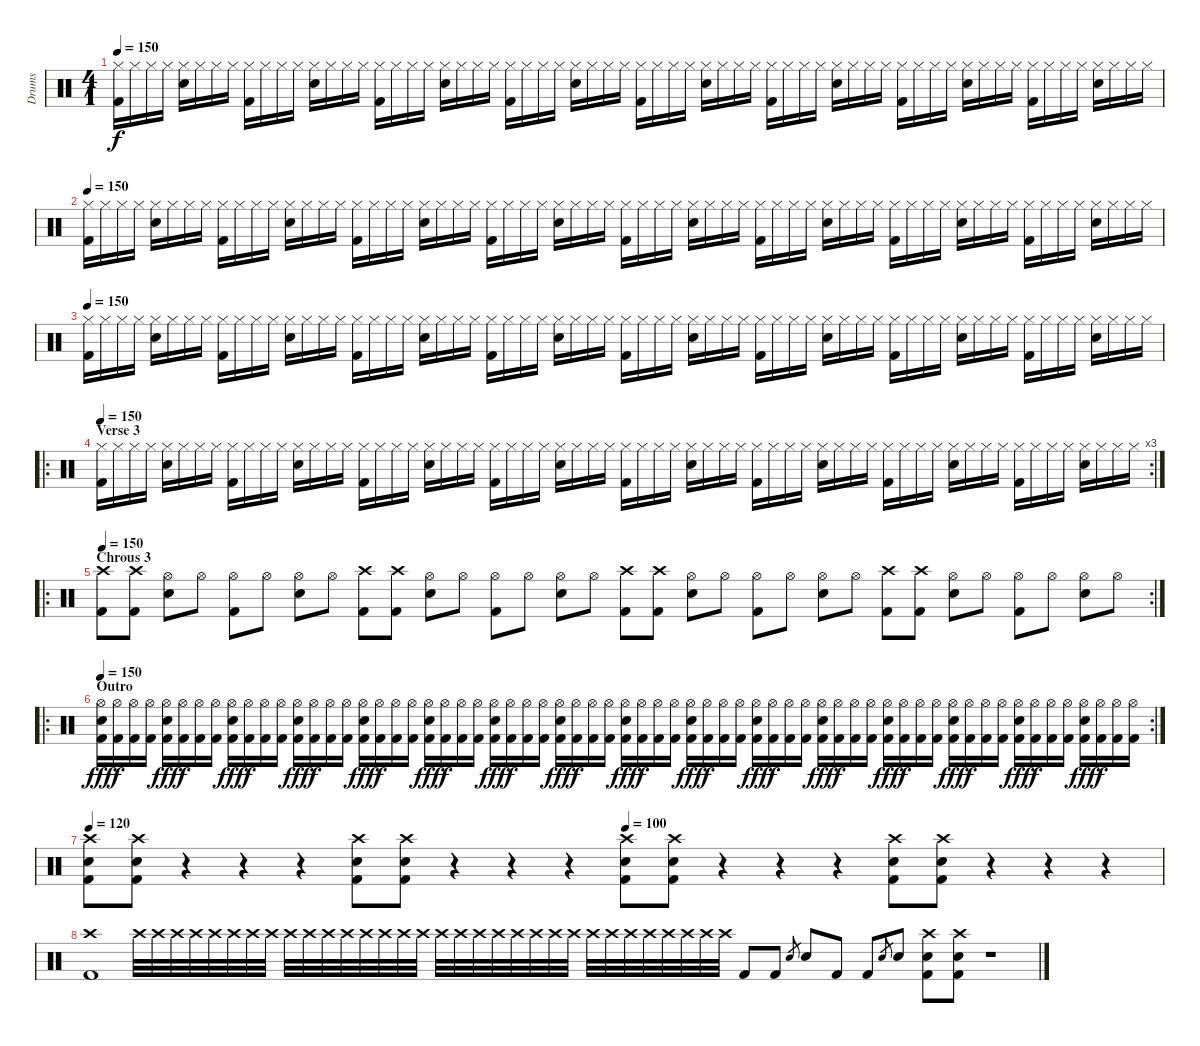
\track ("Drums" "Drums") {instrument percussion}
\staff {score}
\articulation defaults
\ts (4 1)
\tempo 150
\clef neutral
\ks c
("Hi-Hat (closed)" "Kick (hit) 2").16{dy f} "Hi-Hat (closed)".16 "Hi-Hat (closed)".16 "Hi-Hat (closed)".16 ("Hi-Hat (closed)" "Electric Snare (hit)").16 "Hi-Hat (closed)".16 "Hi-Hat (closed)".16 "Hi-Hat (closed)".16 ("Hi-Hat (closed)" "Kick (hit) 2").16 "Hi-Hat (closed)".16 "Hi-Hat (closed)".16 "Hi-Hat (closed)".16 ("Hi-Hat (closed)" "Electric Snare (hit)").16 "Hi-Hat (closed)".16 "Hi-Hat (closed)".16 "Hi-Hat (closed)".16 ("Hi-Hat (closed)" "Kick (hit) 2").16 "Hi-Hat (closed)".16 "Hi-Hat (closed)".16 "Hi-Hat (closed)".16 ("Hi-Hat (closed)" "Electric Snare (hit)").16 "Hi-Hat (closed)".16 "Hi-Hat (closed)".16 "Hi-Hat (closed)".16 ("Hi-Hat (closed)" "Kick (hit) 2").16 "Hi-Hat (closed)".16 "Hi-Hat (closed)".16 "Hi-Hat (closed)".16 ("Hi-Hat (closed)" "Electric Snare (hit)").16 "Hi-Hat (closed)".16 "Hi-Hat (closed)".16 "Hi-Hat (closed)".16 ("Hi-Hat (closed)" "Kick (hit) 2").16 "Hi-Hat (closed)".16 "Hi-Hat (closed)".16 "Hi-Hat (closed)".16 ("Hi-Hat (closed)" "Electric Snare (hit)").16 "Hi-Hat (closed)".16 "Hi-Hat (closed)".16 "Hi-Hat (closed)".16 ("Hi-Hat (closed)" "Kick (hit) 2").16 "Hi-Hat (closed)".16 "Hi-Hat (closed)".16 "Hi-Hat (closed)".16 ("Hi-Hat (closed)" "Electric Snare (hit)").16 "Hi-Hat (closed)".16 "Hi-Hat (closed)".16 "Hi-Hat (closed)".16 ("Hi-Hat (closed)" "Kick (hit) 2").16 "Hi-Hat (closed)".16 "Hi-Hat (closed)".16 "Hi-Hat (closed)".16 ("Hi-Hat (closed)" "Electric Snare (hit)").16 "Hi-Hat (closed)".16 "Hi-Hat (closed)".16 "Hi-Hat (closed)".16 ("Hi-Hat (closed)" "Kick (hit) 2").16 "Hi-Hat (closed)".16 "Hi-Hat (closed)".16 "Hi-Hat (closed)".16 ("Hi-Hat (closed)" "Electric Snare (hit)").16 "Hi-Hat (closed)".16 "Hi-Hat (closed)".16 "Hi-Hat (closed)".16 |
\tempo 150
("Hi-Hat (closed)" "Kick (hit) 2").16 "Hi-Hat (closed)".16 "Hi-Hat (closed)".16 "Hi-Hat (closed)".16 ("Hi-Hat (closed)" "Electric Snare (hit)").16 "Hi-Hat (closed)".16 "Hi-Hat (closed)".16 "Hi-Hat (closed)".16 ("Hi-Hat (closed)" "Kick (hit) 2").16 "Hi-Hat (closed)".16 "Hi-Hat (closed)".16 "Hi-Hat (closed)".16 ("Hi-Hat (closed)" "Electric Snare (hit)").16 "Hi-Hat (closed)".16 "Hi-Hat (closed)".16 "Hi-Hat (closed)".16 ("Hi-Hat (closed)" "Kick (hit) 2").16 "Hi-Hat (closed)".16 "Hi-Hat (closed)".16 "Hi-Hat (closed)".16 ("Hi-Hat (closed)" "Electric Snare (hit)").16 "Hi-Hat (closed)".16 "Hi-Hat (closed)".16 "Hi-Hat (closed)".16 ("Hi-Hat (closed)" "Kick (hit) 2").16 "Hi-Hat (closed)".16 "Hi-Hat (closed)".16 "Hi-Hat (closed)".16 ("Hi-Hat (closed)" "Electric Snare (hit)").16 "Hi-Hat (closed)".16 "Hi-Hat (closed)".16 "Hi-Hat (closed)".16 ("Hi-Hat (closed)" "Kick (hit) 2").16 "Hi-Hat (closed)".16 "Hi-Hat (closed)".16 "Hi-Hat (closed)".16 ("Hi-Hat (closed)" "Electric Snare (hit)").16 "Hi-Hat (closed)".16 "Hi-Hat (closed)".16 "Hi-Hat (closed)".16 ("Hi-Hat (closed)" "Kick (hit) 2").16 "Hi-Hat (closed)".16 "Hi-Hat (closed)".16 "Hi-Hat (closed)".16 ("Hi-Hat (closed)" "Electric Snare (hit)").16 "Hi-Hat (closed)".16 "Hi-Hat (closed)".16 "Hi-Hat (closed)".16 ("Hi-Hat (closed)" "Kick (hit) 2").16 "Hi-Hat (closed)".16 "Hi-Hat (closed)".16 "Hi-Hat (closed)".16 ("Hi-Hat (closed)" "Electric Snare (hit)").16 "Hi-Hat (closed)".16 "Hi-Hat (closed)".16 "Hi-Hat (closed)".16 ("Hi-Hat (closed)" "Kick (hit) 2").16 "Hi-Hat (closed)".16 "Hi-Hat (closed)".16 "Hi-Hat (closed)".16 ("Hi-Hat (closed)" "Electric Snare (hit)").16 "Hi-Hat (closed)".16 "Hi-Hat (closed)".16 "Hi-Hat (closed)".16 |
\tempo 150
("Hi-Hat (closed)" "Kick (hit) 2").16 "Hi-Hat (closed)".16 "Hi-Hat (closed)".16 "Hi-Hat (closed)".16 ("Hi-Hat (closed)" "Electric Snare (hit)").16 "Hi-Hat (closed)".16 "Hi-Hat (closed)".16 "Hi-Hat (closed)".16 ("Hi-Hat (closed)" "Kick (hit) 2").16 "Hi-Hat (closed)".16 "Hi-Hat (closed)".16 "Hi-Hat (closed)".16 ("Hi-Hat (closed)" "Electric Snare (hit)").16 "Hi-Hat (closed)".16 "Hi-Hat (closed)".16 "Hi-Hat (closed)".16 ("Hi-Hat (closed)" "Kick (hit) 2").16 "Hi-Hat (closed)".16 "Hi-Hat (closed)".16 "Hi-Hat (closed)".16 ("Hi-Hat (closed)" "Electric Snare (hit)").16 "Hi-Hat (closed)".16 "Hi-Hat (closed)".16 "Hi-Hat (closed)".16 ("Hi-Hat (closed)" "Kick (hit) 2").16 "Hi-Hat (closed)".16 "Hi-Hat (closed)".16 "Hi-Hat (closed)".16 ("Hi-Hat (closed)" "Electric Snare (hit)").16 "Hi-Hat (closed)".16 "Hi-Hat (closed)".16 "Hi-Hat (closed)".16 ("Hi-Hat (closed)" "Kick (hit) 2").16 "Hi-Hat (closed)".16 "Hi-Hat (closed)".16 "Hi-Hat (closed)".16 ("Hi-Hat (closed)" "Electric Snare (hit)").16 "Hi-Hat (closed)".16 "Hi-Hat (closed)".16 "Hi-Hat (closed)".16 ("Hi-Hat (closed)" "Kick (hit) 2").16 "Hi-Hat (closed)".16 "Hi-Hat (closed)".16 "Hi-Hat (closed)".16 ("Hi-Hat (closed)" "Electric Snare (hit)").16 "Hi-Hat (closed)".16 "Hi-Hat (closed)".16 "Hi-Hat (closed)".16 ("Hi-Hat (closed)" "Kick (hit) 2").16 "Hi-Hat (closed)".16 "Hi-Hat (closed)".16 "Hi-Hat (closed)".16 ("Hi-Hat (closed)" "Electric Snare (hit)").16 "Hi-Hat (closed)".16 "Hi-Hat (closed)".16 "Hi-Hat (closed)".16 ("Hi-Hat (closed)" "Kick (hit) 2").16 "Hi-Hat (closed)".16 "Hi-Hat (closed)".16 "Hi-Hat (closed)".16 ("Hi-Hat (closed)" "Electric Snare (hit)").16 "Hi-Hat (closed)".16 "Hi-Hat (closed)".16 "Hi-Hat (closed)".16 |
\ro
\rc 3
\section ("" "Verse 3")
\tempo 150
("Hi-Hat (closed)" "Kick (hit) 2").16 "Hi-Hat (closed)".16 "Hi-Hat (closed)".16 "Hi-Hat (closed)".16 ("Hi-Hat (closed)" "Electric Snare (hit)").16 "Hi-Hat (closed)".16 "Hi-Hat (closed)".16 "Hi-Hat (closed)".16 ("Hi-Hat (closed)" "Kick (hit) 2").16 "Hi-Hat (closed)".16 "Hi-Hat (closed)".16 "Hi-Hat (closed)".16 ("Hi-Hat (closed)" "Electric Snare (hit)").16 "Hi-Hat (closed)".16 "Hi-Hat (closed)".16 "Hi-Hat (closed)".16 ("Hi-Hat (closed)" "Kick (hit) 2").16 "Hi-Hat (closed)".16 "Hi-Hat (closed)".16 "Hi-Hat (closed)".16 ("Hi-Hat (closed)" "Electric Snare (hit)").16 "Hi-Hat (closed)".16 "Hi-Hat (closed)".16 "Hi-Hat (closed)".16 ("Hi-Hat (closed)" "Kick (hit) 2").16 "Hi-Hat (closed)".16 "Hi-Hat (closed)".16 "Hi-Hat (closed)".16 ("Hi-Hat (closed)" "Electric Snare (hit)").16 "Hi-Hat (closed)".16 "Hi-Hat (closed)".16 "Hi-Hat (closed)".16 ("Hi-Hat (closed)" "Kick (hit) 2").16 "Hi-Hat (closed)".16 "Hi-Hat (closed)".16 "Hi-Hat (closed)".16 ("Hi-Hat (closed)" "Electric Snare (hit)").16 "Hi-Hat (closed)".16 "Hi-Hat (closed)".16 "Hi-Hat (closed)".16 ("Hi-Hat (closed)" "Kick (hit) 2").16 "Hi-Hat (closed)".16 "Hi-Hat (closed)".16 "Hi-Hat (closed)".16 ("Hi-Hat (closed)" "Electric Snare (hit)").16 "Hi-Hat (closed)".16 "Hi-Hat (closed)".16 "Hi-Hat (closed)".16 ("Hi-Hat (closed)" "Kick (hit) 2").16 "Hi-Hat (closed)".16 "Hi-Hat (closed)".16 "Hi-Hat (closed)".16 ("Hi-Hat (closed)" "Electric Snare (hit)").16 "Hi-Hat (closed)".16 "Hi-Hat (closed)".16 "Hi-Hat (closed)".16 ("Hi-Hat (closed)" "Kick (hit) 2").16 "Hi-Hat (closed)".16 "Hi-Hat (closed)".16 "Hi-Hat (closed)".16 ("Hi-Hat (closed)" "Electric Snare (hit)").16 "Hi-Hat (closed)".16 "Hi-Hat (closed)".16 "Hi-Hat (closed)".16 |
\ro
\rc 2
\section ("" "Chrous 3")
\tempo 150
("Crash high (hit)" "Kick (hit) 2").8 ("Crash high (hit)" "Kick (hit) 2").8 ("Hi-Hat (open)" "Electric Snare (hit)").8 "Hi-Hat (open)".8 ("Hi-Hat (open)" "Kick (hit) 2").8 "Hi-Hat (open)".8 ("Hi-Hat (open)" "Electric Snare (hit)").8 "Hi-Hat (open)".8 ("Crash high (hit)" "Kick (hit) 2").8 ("Crash high (hit)" "Kick (hit) 2").8 ("Hi-Hat (open)" "Electric Snare (hit)").8 "Hi-Hat (open)".8 ("Hi-Hat (open)" "Kick (hit) 2").8 "Hi-Hat (open)".8 ("Hi-Hat (open)" "Electric Snare (hit)").8 "Hi-Hat (open)".8 ("Crash high (hit)" "Kick (hit) 2").8 ("Crash high (hit)" "Kick (hit) 2").8 ("Hi-Hat (open)" "Electric Snare (hit)").8 "Hi-Hat (open)".8 ("Hi-Hat (open)" "Kick (hit) 2").8 "Hi-Hat (open)".8 ("Hi-Hat (open)" "Electric Snare (hit)").8 "Hi-Hat (open)".8 ("Crash high (hit)" "Kick (hit) 2").8 ("Crash high (hit)" "Kick (hit) 2").8 ("Hi-Hat (open)" "Electric Snare (hit)").8 "Hi-Hat (open)".8 ("Hi-Hat (open)" "Kick (hit) 2").8 "Hi-Hat (open)".8 ("Hi-Hat (open)" "Electric Snare (hit)").8 "Hi-Hat (open)".8 |
\ro
\rc 2
\section ("" "Outro")
\tempo 150
("Hi-Hat (open)" "Kick (hit) 2" "Electric Snare (hit)").16{dy fff} ("Hi-Hat (open)" "Kick (hit) 2").16{dy f} ("Hi-Hat (open)" "Kick (hit) 2").16 ("Hi-Hat (open)" "Kick (hit) 2").16 ("Hi-Hat (open)" "Kick (hit) 2" "Electric Snare (hit)").16{dy fff} ("Hi-Hat (open)" "Kick (hit) 2").16{dy f} ("Hi-Hat (open)" "Kick (hit) 2").16 ("Hi-Hat (open)" "Kick (hit) 2").16 ("Hi-Hat (open)" "Kick (hit) 2" "Electric Snare (hit)").16{dy fff} ("Hi-Hat (open)" "Kick (hit) 2").16{dy f} ("Hi-Hat (open)" "Kick (hit) 2").16 ("Hi-Hat (open)" "Kick (hit) 2").16 ("Hi-Hat (open)" "Kick (hit) 2" "Electric Snare (hit)").16{dy fff} ("Hi-Hat (open)" "Kick (hit) 2").16{dy f} ("Hi-Hat (open)" "Kick (hit) 2").16 ("Hi-Hat (open)" "Kick (hit) 2").16 ("Hi-Hat (open)" "Kick (hit) 2" "Electric Snare (hit)").16{dy fff} ("Hi-Hat (open)" "Kick (hit) 2").16{dy f} ("Hi-Hat (open)" "Kick (hit) 2").16 ("Hi-Hat (open)" "Kick (hit) 2").16 ("Hi-Hat (open)" "Kick (hit) 2" "Electric Snare (hit)").16{dy fff} ("Hi-Hat (open)" "Kick (hit) 2").16{dy f} ("Hi-Hat (open)" "Kick (hit) 2").16 ("Hi-Hat (open)" "Kick (hit) 2").16 ("Hi-Hat (open)" "Kick (hit) 2" "Electric Snare (hit)").16{dy fff} ("Hi-Hat (open)" "Kick (hit) 2").16{dy f} ("Hi-Hat (open)" "Kick (hit) 2").16 ("Hi-Hat (open)" "Kick (hit) 2").16 ("Hi-Hat (open)" "Kick (hit) 2" "Electric Snare (hit)").16{dy fff} ("Hi-Hat (open)" "Kick (hit) 2").16{dy f} ("Hi-Hat (open)" "Kick (hit) 2").16 ("Hi-Hat (open)" "Kick (hit) 2").16 ("Hi-Hat (open)" "Kick (hit) 2" "Electric Snare (hit)").16{dy fff} ("Hi-Hat (open)" "Kick (hit) 2").16{dy f} ("Hi-Hat (open)" "Kick (hit) 2").16 ("Hi-Hat (open)" "Kick (hit) 2").16 ("Hi-Hat (open)" "Kick (hit) 2" "Electric Snare (hit)").16{dy fff} ("Hi-Hat (open)" "Kick (hit) 2").16{dy f} ("Hi-Hat (open)" "Kick (hit) 2").16 ("Hi-Hat (open)" "Kick (hit) 2").16 ("Hi-Hat (open)" "Kick (hit) 2" "Electric Snare (hit)").16{dy fff} ("Hi-Hat (open)" "Kick (hit) 2").16{dy f} ("Hi-Hat (open)" "Kick (hit) 2").16 ("Hi-Hat (open)" "Kick (hit) 2").16 ("Hi-Hat (open)" "Kick (hit) 2" "Electric Snare (hit)").16{dy fff} ("Hi-Hat (open)" "Kick (hit) 2").16{dy f} ("Hi-Hat (open)" "Kick (hit) 2").16 ("Hi-Hat (open)" "Kick (hit) 2").16 ("Hi-Hat (open)" "Kick (hit) 2" "Electric Snare (hit)").16{dy fff} ("Hi-Hat (open)" "Kick (hit) 2").16{dy f} ("Hi-Hat (open)" "Kick (hit) 2").16 ("Hi-Hat (open)" "Kick (hit) 2").16 ("Hi-Hat (open)" "Kick (hit) 2" "Electric Snare (hit)").16{dy fff} ("Hi-Hat (open)" "Kick (hit) 2").16{dy f} ("Hi-Hat (open)" "Kick (hit) 2").16 ("Hi-Hat (open)" "Kick (hit) 2").16 ("Hi-Hat (open)" "Kick (hit) 2" "Electric Snare (hit)").16{dy fff} ("Hi-Hat (open)" "Kick (hit) 2").16{dy f} ("Hi-Hat (open)" "Kick (hit) 2").16 ("Hi-Hat (open)" "Kick (hit) 2").16 ("Hi-Hat (open)" "Kick (hit) 2" "Electric Snare (hit)").16{dy fff} ("Hi-Hat (open)" "Kick (hit) 2").16{dy f} ("Hi-Hat (open)" "Kick (hit) 2").16 ("Hi-Hat (open)" "Kick (hit) 2").16 |
\tempo 120
\tempo (100 0.5)
("Crash high (hit)" "Electric Snare (hit)" "Kick (hit) 2").8 ("Crash high (hit)" "Electric Snare (hit)" "Kick (hit) 2").8 r.4 r.4 r.4 ("Crash high (hit)" "Electric Snare (hit)" "Kick (hit) 2").8 ("Crash high (hit)" "Electric Snare (hit)" "Kick (hit) 2").8 r.4 r.4 r.4 ("Crash high (hit)" "Electric Snare (hit)" "Kick (hit) 2").8 ("Crash high (hit)" "Electric Snare (hit)" "Kick (hit) 2").8 r.4 r.4 r.4 ("Crash high (hit)" "Electric Snare (hit)" "Kick (hit) 2").8 ("Crash high (hit)" "Electric Snare (hit)" "Kick (hit) 2").8 r.4 r.4 r.4 |
("Crash high (hit)" "Kick (hit) 2").1 "Crash high (hit)".32 "Crash high (hit)".32 "Crash high (hit)".32 "Crash high (hit)".32 "Crash high (hit)".32 "Crash high (hit)".32 "Crash high (hit)".32 "Crash high (hit)".32 "Crash high (hit)".32 "Crash high (hit)".32 "Crash high (hit)".32 "Crash high (hit)".32 "Crash high (hit)".32 "Crash high (hit)".32 "Crash high (hit)".32 "Crash high (hit)".32 "Crash high (hit)".32 "Crash high (hit)".32 "Crash high (hit)".32 "Crash high (hit)".32 "Crash high (hit)".32 "Crash high (hit)".32 "Crash high (hit)".32 "Crash high (hit)".32 "Crash high (hit)".32 "Crash high (hit)".32 "Crash high (hit)".32 "Crash high (hit)".32 "Crash high (hit)".32 "Crash high (hit)".32 "Crash high (hit)".32 "Crash high (hit)".32 "Kick (hit) 2".8 "Kick (hit) 2".8 "Electric Snare (hit)".8{gr} "Electric Snare (hit)".8 "Kick (hit) 2".8 "Kick (hit) 2".8 "Electric Snare (hit)".8{gr} "Electric Snare (hit)".8 ("Crash high (hit)" "Electric Snare (hit)" "Kick (hit) 2").8 ("Crash high (hit)" "Electric Snare (hit)" "Kick (hit) 2").8 r.1
